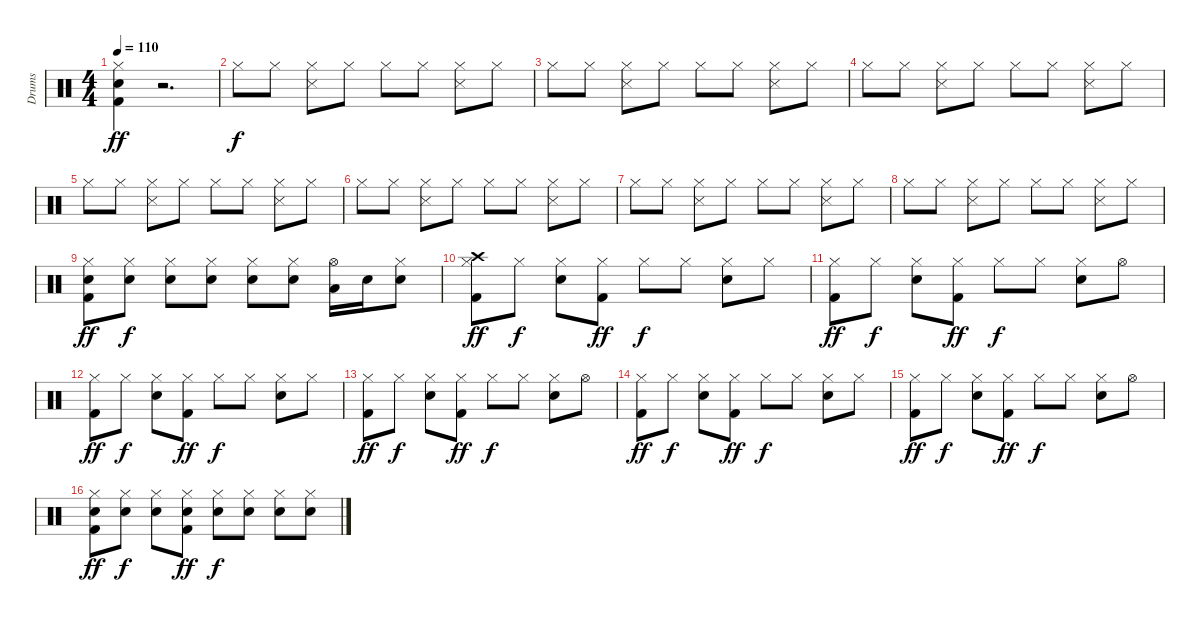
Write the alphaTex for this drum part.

\track ("Drums" "Drums") {instrument percussion}
\staff {score}
\articulation defaults
\ts (4 4)
\tempo 110
\clef neutral
\ks c
("Kick (hit) 2" "Snare (hit) 2" "Hi-Hat (closed)").4{dy ff} r.2{d} |
"Hi-Hat (closed)".8{dy f} "Hi-Hat (closed)".8 ("Snare (side stick) 3" "Hi-Hat (closed)").8 "Hi-Hat (closed)".8 "Hi-Hat (closed)".8 "Hi-Hat (closed)".8 ("Snare (side stick) 3" "Hi-Hat (closed)").8 "Hi-Hat (closed)".8 |
"Hi-Hat (closed)".8 "Hi-Hat (closed)".8 ("Snare (side stick) 3" "Hi-Hat (closed)").8 "Hi-Hat (closed)".8 "Hi-Hat (closed)".8 "Hi-Hat (closed)".8 ("Snare (side stick) 3" "Hi-Hat (closed)").8 "Hi-Hat (closed)".8 |
"Hi-Hat (closed)".8 "Hi-Hat (closed)".8 ("Snare (side stick) 3" "Hi-Hat (closed)").8 "Hi-Hat (closed)".8 "Hi-Hat (closed)".8 "Hi-Hat (closed)".8 ("Snare (side stick) 3" "Hi-Hat (closed)").8 "Hi-Hat (closed)".8 |
"Hi-Hat (closed)".8 "Hi-Hat (closed)".8 ("Snare (side stick) 3" "Hi-Hat (closed)").8 "Hi-Hat (closed)".8 "Hi-Hat (closed)".8 "Hi-Hat (closed)".8 ("Snare (side stick) 3" "Hi-Hat (closed)").8 "Hi-Hat (closed)".8 |
"Hi-Hat (closed)".8 "Hi-Hat (closed)".8 ("Snare (side stick) 3" "Hi-Hat (closed)").8 "Hi-Hat (closed)".8 "Hi-Hat (closed)".8 "Hi-Hat (closed)".8 ("Snare (side stick) 3" "Hi-Hat (closed)").8 "Hi-Hat (closed)".8 |
"Hi-Hat (closed)".8 "Hi-Hat (closed)".8 ("Snare (side stick) 3" "Hi-Hat (closed)").8 "Hi-Hat (closed)".8 "Hi-Hat (closed)".8 "Hi-Hat (closed)".8 ("Snare (side stick) 3" "Hi-Hat (closed)").8 "Hi-Hat (closed)".8 |
"Hi-Hat (closed)".8 "Hi-Hat (closed)".8 ("Snare (side stick) 3" "Hi-Hat (closed)").8 "Hi-Hat (closed)".8 "Hi-Hat (closed)".8 "Hi-Hat (closed)".8 ("Snare (side stick) 3" "Hi-Hat (closed)").8 "Hi-Hat (closed)".8 |
("Kick (hit) 2" "Snare (hit) 2" "Hi-Hat (closed)").8{dy ff} ("Snare (hit) 2" "Hi-Hat (closed)").8{dy f} ("Snare (hit) 2" "Hi-Hat (closed)").8 ("Snare (hit) 2" "Hi-Hat (closed)").8 ("Snare (hit) 2" "Hi-Hat (closed)").8 ("Snare (hit) 2" "Hi-Hat (closed)").8 ("Low Tom (hit)" "Hi-Hat (open)").16 "Snare (hit) 2".16 ("Snare (hit) 2" "Hi-Hat (closed)").8 |
("Kick (hit) 2" "Hi-Hat (closed)" "Crash high (hit)").8{dy ff} "Hi-Hat (closed)".8{dy f} ("Snare (hit) 2" "Hi-Hat (closed)").8 ("Kick (hit) 2" "Hi-Hat (closed)").8{dy ff} "Hi-Hat (closed)".8{dy f} "Hi-Hat (closed)".8 ("Snare (hit) 2" "Hi-Hat (closed)").8 "Hi-Hat (closed)".8 |
("Kick (hit) 2" "Hi-Hat (closed)").8{dy ff} "Hi-Hat (closed)".8{dy f} ("Snare (hit) 2" "Hi-Hat (closed)").8 ("Kick (hit) 2" "Hi-Hat (closed)").8{dy ff} "Hi-Hat (closed)".8{dy f} "Hi-Hat (closed)".8 ("Snare (hit) 2" "Hi-Hat (closed)").8 "Hi-Hat (open)".8 |
("Kick (hit) 2" "Hi-Hat (closed)").8{dy ff} "Hi-Hat (closed)".8{dy f} ("Snare (hit) 2" "Hi-Hat (closed)").8 ("Kick (hit) 2" "Hi-Hat (closed)").8{dy ff} "Hi-Hat (closed)".8{dy f} "Hi-Hat (closed)".8 ("Snare (hit) 2" "Hi-Hat (closed)").8 "Hi-Hat (closed)".8 |
("Kick (hit) 2" "Hi-Hat (closed)").8{dy ff} "Hi-Hat (closed)".8{dy f} ("Snare (hit) 2" "Hi-Hat (closed)").8 ("Kick (hit) 2" "Hi-Hat (closed)").8{dy ff} "Hi-Hat (closed)".8{dy f} "Hi-Hat (closed)".8 ("Snare (hit) 2" "Hi-Hat (closed)").8 "Hi-Hat (open)".8 |
("Kick (hit) 2" "Hi-Hat (closed)").8{dy ff} "Hi-Hat (closed)".8{dy f} ("Snare (hit) 2" "Hi-Hat (closed)").8 ("Kick (hit) 2" "Hi-Hat (closed)").8{dy ff} "Hi-Hat (closed)".8{dy f} "Hi-Hat (closed)".8 ("Snare (hit) 2" "Hi-Hat (closed)").8 "Hi-Hat (closed)".8 |
("Kick (hit) 2" "Hi-Hat (closed)").8{dy ff} "Hi-Hat (closed)".8{dy f} ("Snare (hit) 2" "Hi-Hat (closed)").8 ("Kick (hit) 2" "Hi-Hat (closed)").8{dy ff} "Hi-Hat (closed)".8{dy f} "Hi-Hat (closed)".8 ("Snare (hit) 2" "Hi-Hat (closed)").8 "Hi-Hat (open)".8 |
("Kick (hit) 2" "Snare (hit) 2" "Hi-Hat (closed)").8{dy ff} ("Snare (hit) 2" "Hi-Hat (closed)").8{dy f} ("Snare (hit) 2" "Hi-Hat (closed)").8 ("Kick (hit) 2" "Snare (hit) 2" "Hi-Hat (closed)").8{dy ff} ("Snare (hit) 2" "Hi-Hat (closed)").8{dy f} ("Snare (hit) 2" "Hi-Hat (closed)").8 ("Snare (hit) 2" "Hi-Hat (closed)").8 ("Snare (hit) 2" "Hi-Hat (closed)").8
